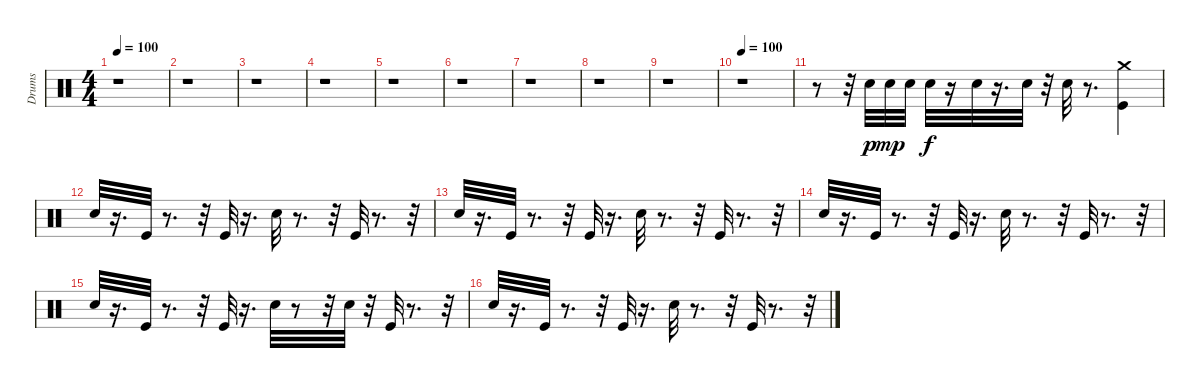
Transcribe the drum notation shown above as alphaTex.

\track ("Drums" "Drums") {instrument percussion}
\staff {score}
\articulation defaults
\ts (4 4)
\tempo 100
\clef neutral
\ks c
r.1{dy p} |
r.1 |
r.1 |
r.1 |
r.1 |
r.1 |
r.1 |
r.1 |
r.1 |
\tempo 100
r.1 |
r.8 r.32 "Metronome (bell)".32 "Metronome (bell)".32{dy mp} "Metronome (bell)".32 "Metronome (bell)".32{dy f} r.16 "Metronome (bell)".32 r.16{d} "Metronome (bell)".32 r.32 "Metronome (bell)".32 r.8{d} ("Kick (hit)" "Crash medium (hit)").4 |
"Metronome (bell)".32 r.16{d} "Kick (hit)".32 r.8{d} r.32 "Kick (hit)".32 r.16{d} "Metronome (bell)".32 r.8{d} r.32 "Kick (hit)".32 r.8{d} r.32 |
"Metronome (bell)".32 r.16{d} "Kick (hit)".32 r.8{d} r.32 "Kick (hit)".32 r.16{d} "Metronome (bell)".32 r.8{d} r.32 "Kick (hit)".32 r.8{d} r.32 |
"Metronome (bell)".32 r.16{d} "Kick (hit)".32 r.8{d} r.32 "Kick (hit)".32 r.16{d} "Metronome (bell)".32 r.8{d} r.32 "Kick (hit)".32 r.8{d} r.32 |
"Metronome (bell)".32 r.16{d} "Kick (hit)".32 r.8{d} r.32 "Kick (hit)".32 r.16{d} "Metronome (bell)".32 r.8 r.32 "Metronome (bell)".32 r.32 "Kick (hit)".32 r.8{d} r.32 |
"Metronome (bell)".32 r.16{d} "Kick (hit)".32 r.8{d} r.32 "Kick (hit)".32 r.16{d} "Metronome (bell)".32 r.8{d} r.32 "Kick (hit)".32 r.8{d} r.32
